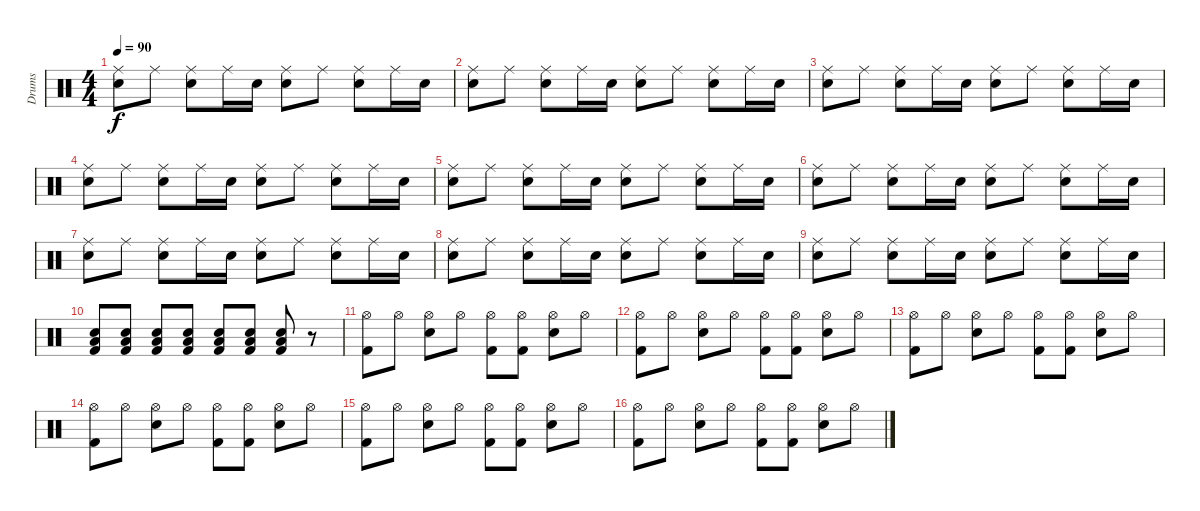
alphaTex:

\track ("Drums" "Drums") {instrument percussion}
\staff {score}
\articulation defaults
\ts (4 4)
\tempo 90
\clef neutral
\ks c
("Ride (middle)" "Snare (hit) 2").8{dy f} "Ride (middle)".8 ("Ride (middle)" "Snare (hit) 2").8 "Ride (middle)".16 "Snare (hit) 2".16 ("Ride (middle)" "Snare (hit) 2").8 "Ride (middle)".8 ("Ride (middle)" "Snare (hit) 2").8 "Ride (middle)".16 "Snare (hit) 2".16 |
("Ride (middle)" "Snare (hit) 2").8 "Ride (middle)".8 ("Ride (middle)" "Snare (hit) 2").8 "Ride (middle)".16 "Snare (hit) 2".16 ("Ride (middle)" "Snare (hit) 2").8 "Ride (middle)".8 ("Ride (middle)" "Snare (hit) 2").8 "Ride (middle)".16 "Snare (hit) 2".16 |
("Ride (middle)" "Snare (hit) 2").8 "Ride (middle)".8 ("Ride (middle)" "Snare (hit) 2").8 "Ride (middle)".16 "Snare (hit) 2".16 ("Ride (middle)" "Snare (hit) 2").8 "Ride (middle)".8 ("Ride (middle)" "Snare (hit) 2").8 "Ride (middle)".16 "Snare (hit) 2".16 |
("Ride (middle)" "Snare (hit) 2").8 "Ride (middle)".8 ("Ride (middle)" "Snare (hit) 2").8 "Ride (middle)".16 "Snare (hit) 2".16 ("Ride (middle)" "Snare (hit) 2").8 "Ride (middle)".8 ("Ride (middle)" "Snare (hit) 2").8 "Ride (middle)".16 "Snare (hit) 2".16 |
("Ride (middle)" "Snare (hit) 2").8 "Ride (middle)".8 ("Ride (middle)" "Snare (hit) 2").8 "Ride (middle)".16 "Snare (hit) 2".16 ("Ride (middle)" "Snare (hit) 2").8 "Ride (middle)".8 ("Ride (middle)" "Snare (hit) 2").8 "Ride (middle)".16 "Snare (hit) 2".16 |
("Ride (middle)" "Snare (hit) 2").8 "Ride (middle)".8 ("Ride (middle)" "Snare (hit) 2").8 "Ride (middle)".16 "Snare (hit) 2".16 ("Ride (middle)" "Snare (hit) 2").8 "Ride (middle)".8 ("Ride (middle)" "Snare (hit) 2").8 "Ride (middle)".16 "Snare (hit) 2".16 |
("Ride (middle)" "Snare (hit) 2").8 "Ride (middle)".8 ("Ride (middle)" "Snare (hit) 2").8 "Ride (middle)".16 "Snare (hit) 2".16 ("Ride (middle)" "Snare (hit) 2").8 "Ride (middle)".8 ("Ride (middle)" "Snare (hit) 2").8 "Ride (middle)".16 "Snare (hit) 2".16 |
("Ride (middle)" "Snare (hit) 2").8 "Ride (middle)".8 ("Ride (middle)" "Snare (hit) 2").8 "Ride (middle)".16 "Snare (hit) 2".16 ("Ride (middle)" "Snare (hit) 2").8 "Ride (middle)".8 ("Ride (middle)" "Snare (hit) 2").8 "Ride (middle)".16 "Snare (hit) 2".16 |
("Ride (middle)" "Snare (hit) 2").8 "Ride (middle)".8 ("Ride (middle)" "Snare (hit) 2").8 "Ride (middle)".16 "Snare (hit) 2".16 ("Ride (middle)" "Snare (hit) 2").8 "Ride (middle)".8 ("Ride (middle)" "Snare (hit) 2").8 "Ride (middle)".16 "Snare (hit) 2".16 |
("Snare (hit) 2" "Low Tom (hit)" "Kick (hit) 2").8{volume 8} ("Snare (hit) 2" "Low Tom (hit)" "Kick (hit) 2").8{volume 9} ("Snare (hit) 2" "Low Tom (hit)" "Kick (hit) 2").8{volume 11} ("Snare (hit) 2" "Low Tom (hit)" "Kick (hit) 2").8{volume 13} ("Snare (hit) 2" "Low Tom (hit)" "Kick (hit) 2").8{volume 15} ("Snare (hit) 2" "Low Tom (hit)" "Kick (hit) 2").8{volume 16} ("Snare (hit) 2" "Low Tom (hit)" "Kick (hit) 2").8 r.8 |
("Hi-Hat (open)" "Kick (hit) 2").8 "Hi-Hat (open)".8 ("Hi-Hat (open)" "Snare (hit) 2").8 "Hi-Hat (open)".8 ("Hi-Hat (open)" "Kick (hit) 2").8 ("Hi-Hat (open)" "Kick (hit) 2").8 ("Hi-Hat (open)" "Snare (hit) 2").8 "Hi-Hat (open)".8 |
("Hi-Hat (open)" "Kick (hit) 2").8 "Hi-Hat (open)".8 ("Hi-Hat (open)" "Snare (hit) 2").8 "Hi-Hat (open)".8 ("Hi-Hat (open)" "Kick (hit) 2").8 ("Hi-Hat (open)" "Kick (hit) 2").8 ("Hi-Hat (open)" "Snare (hit) 2").8 "Hi-Hat (open)".8 |
("Hi-Hat (open)" "Kick (hit) 2").8 "Hi-Hat (open)".8 ("Hi-Hat (open)" "Snare (hit) 2").8 "Hi-Hat (open)".8 ("Hi-Hat (open)" "Kick (hit) 2").8 ("Hi-Hat (open)" "Kick (hit) 2").8 ("Hi-Hat (open)" "Snare (hit) 2").8 "Hi-Hat (open)".8 |
("Hi-Hat (open)" "Kick (hit) 2").8 "Hi-Hat (open)".8 ("Hi-Hat (open)" "Snare (hit) 2").8 "Hi-Hat (open)".8 ("Hi-Hat (open)" "Kick (hit) 2").8 ("Hi-Hat (open)" "Kick (hit) 2").8 ("Hi-Hat (open)" "Snare (hit) 2").8 "Hi-Hat (open)".8 |
("Hi-Hat (open)" "Kick (hit) 2").8 "Hi-Hat (open)".8 ("Hi-Hat (open)" "Snare (hit) 2").8 "Hi-Hat (open)".8 ("Hi-Hat (open)" "Kick (hit) 2").8 ("Hi-Hat (open)" "Kick (hit) 2").8 ("Hi-Hat (open)" "Snare (hit) 2").8 "Hi-Hat (open)".8 |
("Hi-Hat (open)" "Kick (hit) 2").8 "Hi-Hat (open)".8 ("Hi-Hat (open)" "Snare (hit) 2").8 "Hi-Hat (open)".8 ("Hi-Hat (open)" "Kick (hit) 2").8 ("Hi-Hat (open)" "Kick (hit) 2").8 ("Hi-Hat (open)" "Snare (hit) 2").8 "Hi-Hat (open)".8
